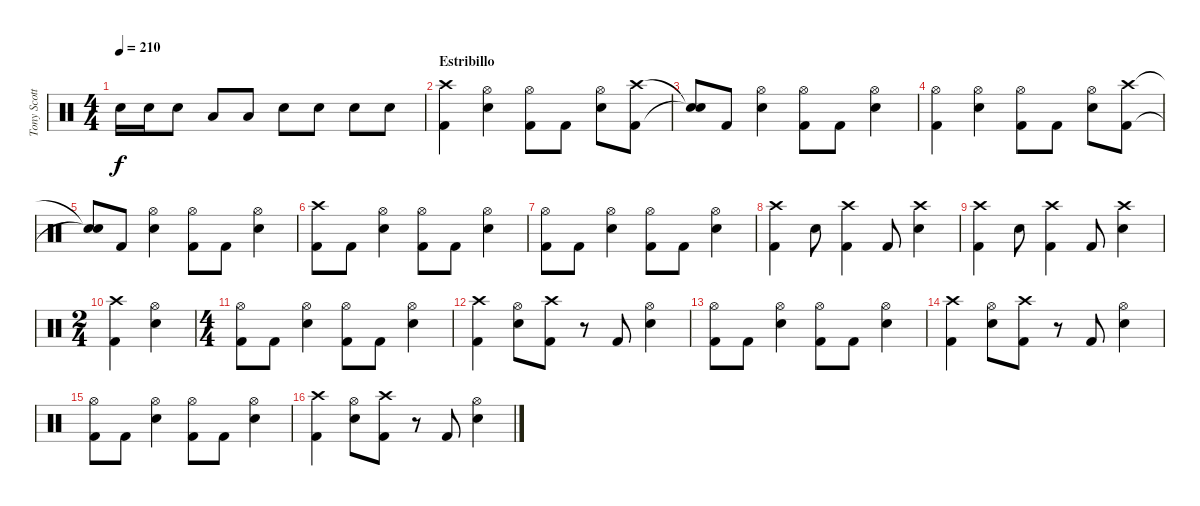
\track ("Tony Scotto" "Tony Scott") {instrument percussion}
\staff {score}
\articulation defaults
\ts (4 4)
\tempo 210
\clef neutral
\ks c "Snare (hit) 2".16{dy f} "Snare (hit) 2".16 "Snare (hit) 2".8 "Low Tom (hit)".8 "Low Floor Tom (hit)".8 "Snare (hit) 2".8 "Snare (hit) 2".8 "Snare (hit) 2".8 "Snare (hit) 2".8
|
\section ("" "Estribillo")
("Crash high (hit)" "Kick (hit) 2").4 ("Hi-Hat (open)" "Snare (hit) 2").4 ("Hi-Hat (open)" "Kick (hit) 2").8 "Kick (hit) 2".8 ("Hi-Hat (open)" "Snare (hit) 2").8 ("Crash high (hit)" "Kick (hit) 2").8 |
("Snare (hit)"{t} "Snare (hit)"{t}).8 "Kick (hit) 2".8 ("Hi-Hat (open)" "Snare (hit) 2").4 ("Hi-Hat (open)" "Kick (hit) 2").8 "Kick (hit) 2".8 ("Hi-Hat (open)" "Snare (hit) 2").4 |
("Hi-Hat (open)" "Kick (hit) 2").4 ("Hi-Hat (open)" "Snare (hit) 2").4 ("Hi-Hat (open)" "Kick (hit) 2").8 "Kick (hit) 2".8 ("Hi-Hat (open)" "Snare (hit) 2").8 ("Crash high (hit)" "Kick (hit) 2").8 |
("Snare (hit)"{t} "Snare (hit)"{t}).8 "Kick (hit) 2".8 ("Hi-Hat (open)" "Snare (hit) 2").4 ("Hi-Hat (open)" "Kick (hit) 2").8 "Kick (hit) 2".8 ("Hi-Hat (open)" "Snare (hit) 2").4 |
("Crash high (hit)" "Kick (hit) 2").8 "Kick (hit) 2".8 ("Hi-Hat (open)" "Snare (hit) 2").4 ("Hi-Hat (open)" "Kick (hit) 2").8 "Kick (hit) 2".8 ("Hi-Hat (open)" "Snare (hit) 2").4 |
("Hi-Hat (open)" "Kick (hit) 2").8 "Kick (hit) 2".8 ("Hi-Hat (open)" "Snare (hit) 2").4 ("Hi-Hat (open)" "Kick (hit) 2").8 "Kick (hit) 2".8 ("Hi-Hat (open)" "Snare (hit) 2").4 |
("Crash high (hit)" "Kick (hit) 2").4 "Snare (hit) 2".8 ("Crash high (hit)" "Kick (hit) 2").4 "Kick (hit) 2".8 ("Crash high (hit)" "Snare (hit) 2").4 |
("Crash high (hit)" "Kick (hit) 2").4 "Snare (hit) 2".8 ("Crash high (hit)" "Kick (hit) 2").4 "Kick (hit) 2".8 ("Crash high (hit)" "Snare (hit) 2").4 |
\ts (2 4)
("Crash high (hit)" "Kick (hit) 2").4 ("Hi-Hat (open)" "Snare (hit) 2").4 |
\ts (4 4)
("Hi-Hat (open)" "Kick (hit) 2").8 "Kick (hit) 2".8 ("Hi-Hat (open)" "Snare (hit) 2").4 ("Hi-Hat (open)" "Kick (hit) 2").8 "Kick (hit) 2".8 ("Hi-Hat (open)" "Snare (hit) 2").4 |
("Crash high (hit)" "Kick (hit) 2").4 ("Hi-Hat (open)" "Snare (hit) 2").8 ("Crash high (hit)" "Kick (hit) 2").8 r.8 "Kick (hit) 2".8 ("Hi-Hat (open)" "Snare (hit) 2").4 |
("Hi-Hat (open)" "Kick (hit) 2").8 "Kick (hit) 2".8 ("Hi-Hat (open)" "Snare (hit) 2").4 ("Hi-Hat (open)" "Kick (hit) 2").8 "Kick (hit) 2".8 ("Hi-Hat (open)" "Snare (hit) 2").4 |
("Crash high (hit)" "Kick (hit) 2").4 ("Hi-Hat (open)" "Snare (hit) 2").8 ("Crash high (hit)" "Kick (hit) 2").8 r.8 "Kick (hit) 2".8 ("Hi-Hat (open)" "Snare (hit) 2").4 |
("Hi-Hat (open)" "Kick (hit) 2").8 "Kick (hit) 2".8 ("Hi-Hat (open)" "Snare (hit) 2").4 ("Hi-Hat (open)" "Kick (hit) 2").8 "Kick (hit) 2".8 ("Hi-Hat (open)" "Snare (hit) 2").4 |
("Crash high (hit)" "Kick (hit) 2").4 ("Hi-Hat (open)" "Snare (hit) 2").8 ("Crash high (hit)" "Kick (hit) 2").8 r.8 "Kick (hit) 2".8 ("Hi-Hat (open)" "Snare (hit) 2").4
